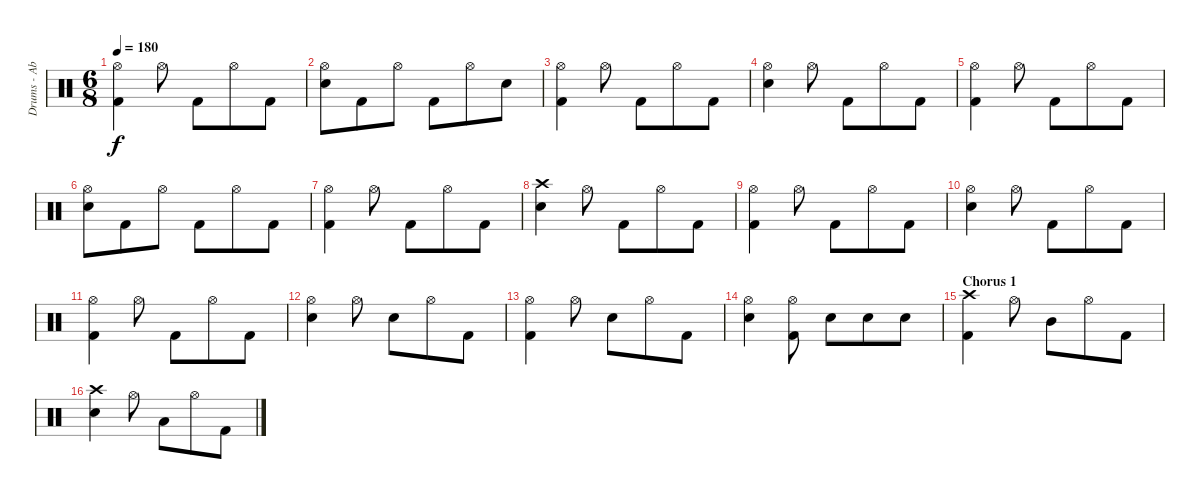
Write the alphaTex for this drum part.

\track ("Drums - Abe Cunningham" "Drums - Ab") {instrument percussion}
\staff {score}
\articulation defaults
\ts (6 8)
\tempo 180
\clef neutral
\ks c
("Hi-Hat (open)" "Kick (hit) 2").4{dy f} "Hi-Hat (open)".8 "Kick (hit) 2".8 "Hi-Hat (open)".8 "Kick (hit) 2".8 |
("Hi-Hat (open)" "Electric Snare (hit)").8 "Kick (hit) 2".8 "Hi-Hat (open)".8 "Kick (hit) 2".8 "Hi-Hat (open)".8 "Electric Snare (hit)".8 |
("Hi-Hat (open)" "Kick (hit) 2").4 "Hi-Hat (open)".8 "Kick (hit) 2".8 "Hi-Hat (open)".8 "Kick (hit) 2".8 |
("Hi-Hat (open)" "Electric Snare (hit)").4 "Hi-Hat (open)".8 "Kick (hit) 2".8 "Hi-Hat (open)".8 "Kick (hit) 2".8 |
("Hi-Hat (open)" "Kick (hit) 2").4 "Hi-Hat (open)".8 "Kick (hit) 2".8 "Hi-Hat (open)".8 "Kick (hit) 2".8 |
("Hi-Hat (open)" "Electric Snare (hit)").8 "Kick (hit) 2".8 "Hi-Hat (open)".8 "Kick (hit) 2".8 "Hi-Hat (open)".8 "Kick (hit) 2".8 |
("Hi-Hat (open)" "Kick (hit) 2").4 "Hi-Hat (open)".8 "Kick (hit) 2".8 "Hi-Hat (open)".8 "Kick (hit) 2".8 |
("Crash high (hit)" "Electric Snare (hit)").4 "Hi-Hat (open)".8 "Kick (hit) 2".8 "Hi-Hat (open)".8 "Kick (hit) 2".8 |
("Hi-Hat (open)" "Kick (hit) 2").4 "Hi-Hat (open)".8 "Kick (hit) 2".8 "Hi-Hat (open)".8 "Kick (hit) 2".8 |
("Hi-Hat (open)" "Electric Snare (hit)").4 "Hi-Hat (open)".8 "Kick (hit) 2".8 "Hi-Hat (open)".8 "Kick (hit) 2".8 |
("Hi-Hat (open)" "Kick (hit) 2").4 "Hi-Hat (open)".8 "Kick (hit) 2".8 "Hi-Hat (open)".8 "Kick (hit) 2".8 |
("Hi-Hat (open)" "Electric Snare (hit)").4 "Hi-Hat (open)".8 "Electric Snare (hit)".8 "Hi-Hat (open)".8 "Kick (hit) 2".8 |
("Hi-Hat (open)" "Kick (hit) 2").4 "Hi-Hat (open)".8 "Electric Snare (hit)".8 "Hi-Hat (open)".8 "Kick (hit) 2".8 |
("Hi-Hat (open)" "Electric Snare (hit)").4 ("Hi-Hat (open)" "Kick (hit) 2").8 "Electric Snare (hit)".8 "Electric Snare (hit)".8 "Electric Snare (hit)".8 |
\section ("" "Chorus 1")
("Crash high (hit)" "Kick (hit) 2").4 "Hi-Hat (open)".8 "Mid Tom (hit)".8 "Hi-Hat (open)".8 "Kick (hit) 2".8 |
("Crash high (hit)" "Electric Snare (hit)").4 "Hi-Hat (open)".8 "Low Tom (hit)".8 "Hi-Hat (open)".8 "Kick (hit) 2".8
